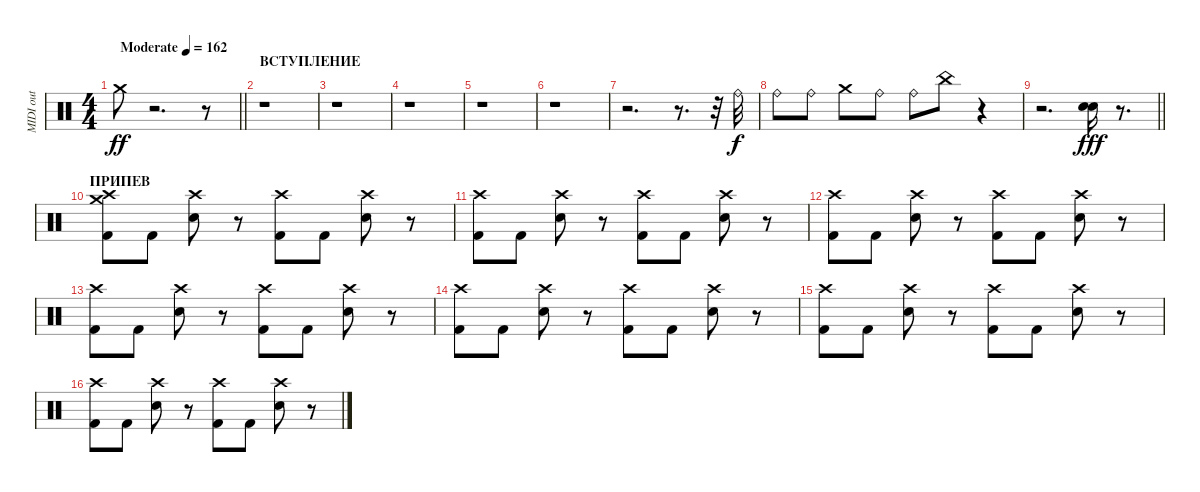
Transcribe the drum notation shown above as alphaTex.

\track ("MIDI out" "MIDI out") {instrument percussion}
\staff {score}
\articulation defaults
\ts (4 4)
\tempo (162 "Moderate")
\clef neutral
\barLineRight lightlight
\ks c "Crash medium (hit)".8{dy ff}
r.2{d} r.8 |
\section ("" "ВСТУПЛЕНИЕ")
r.1 |
r.1 |
r.1 |
r.1 |
r.1 |
r.2{d} r.8{d} r.32 "Ride (bell)".32{dy f} |
"Ride (bell)".8 "Ride (bell)".8 "Crash medium (hit)".8 "Ride (bell)".8 "Ride (bell)".8 "China (hit)".8 r.4 |
\barLineRight lightlight
r.2{d} ("Electric Snare (hit)" "Snare (hit) 2").16{dy fff} r.8{d} |
\section ("" "ПРИПЕВ")
("Crash medium (hit)" "Kick (hit) 2" "Crash high (hit)").8 "Kick (hit) 2".8 ("Crash high (hit)" "Snare (hit) 2").8 r.8 ("Crash high (hit)" "Kick (hit) 2").8 "Kick (hit) 2".8 ("Crash high (hit)" "Snare (hit) 2").8 r.8 |
("Crash high (hit)" "Kick (hit) 2").8 "Kick (hit) 2".8 ("Crash high (hit)" "Snare (hit) 2").8 r.8 ("Crash high (hit)" "Kick (hit) 2").8 "Kick (hit) 2".8 ("Crash high (hit)" "Snare (hit) 2").8 r.8 |
("Kick (hit) 2" "Crash high (hit)").8 "Kick (hit) 2".8 ("Crash high (hit)" "Snare (hit) 2").8 r.8 ("Crash high (hit)" "Kick (hit) 2").8 "Kick (hit) 2".8 ("Crash high (hit)" "Snare (hit) 2").8 r.8 |
("Crash high (hit)" "Kick (hit) 2").8 "Kick (hit) 2".8 ("Crash high (hit)" "Snare (hit) 2").8 r.8 ("Crash high (hit)" "Kick (hit) 2").8 "Kick (hit) 2".8 ("Crash high (hit)" "Snare (hit) 2").8 r.8 |
("Kick (hit) 2" "Crash high (hit)").8 "Kick (hit) 2".8 ("Crash high (hit)" "Snare (hit) 2").8 r.8 ("Crash high (hit)" "Kick (hit) 2").8 "Kick (hit) 2".8 ("Crash high (hit)" "Snare (hit) 2").8 r.8 |
("Crash high (hit)" "Kick (hit) 2").8 "Kick (hit) 2".8 ("Crash high (hit)" "Snare (hit) 2").8 r.8 ("Crash high (hit)" "Kick (hit) 2").8 "Kick (hit) 2".8 ("Crash high (hit)" "Snare (hit) 2").8 r.8 |
("Crash high (hit)" "Kick (hit) 2").8 "Kick (hit) 2".8 ("Crash high (hit)" "Snare (hit) 2").8 r.8 ("Crash high (hit)" "Kick (hit) 2").8 "Kick (hit) 2".8 ("Crash high (hit)" "Snare (hit) 2").8 r.8
